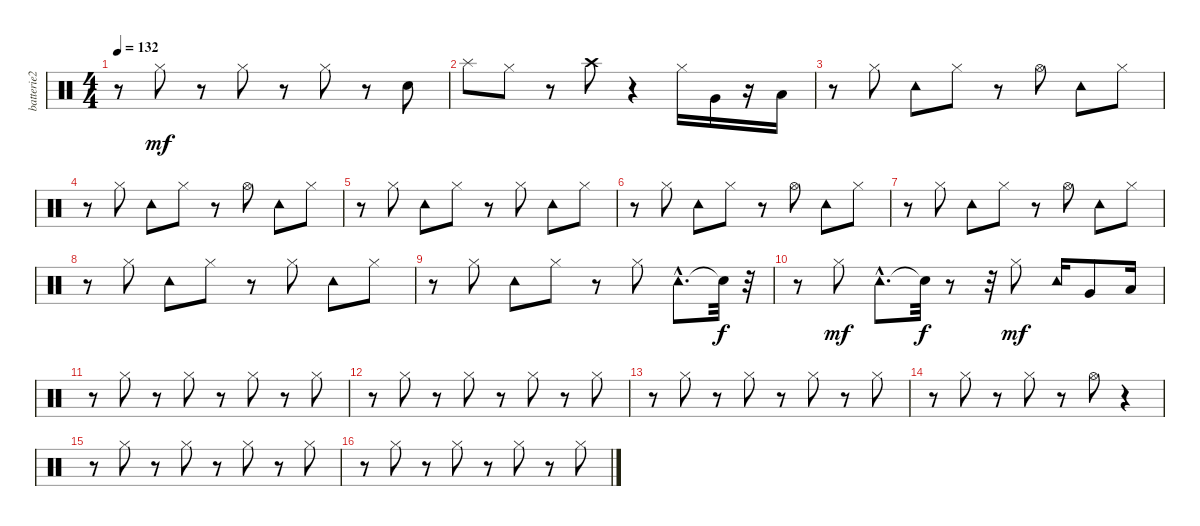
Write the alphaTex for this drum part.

\track ("batterie2" "batterie2") {instrument percussion}
\staff {score}
\articulation defaults
\ts (4 4)
\tempo 132
\clef neutral
\ks c
r.8{dy mf} "Hi-Hat (closed)".8 r.8 "Hi-Hat (closed)".8 r.8 "Hi-Hat (closed)".8 r.8 "Electric Snare (hit)".8 |
"Splash (hit)".8 "Hi-Hat (closed)".8 r.8 "Crash high (hit)".8 r.4 "Hi-Hat (closed)".16 "Very Low Tom (hit)".16 r.16 "Low Floor Tom (hit)".16 |
r.8 "Hi-Hat (closed)".8 "Tambourine (hit)".8 "Hi-Hat (closed)".8 r.8 "Hi-Hat (open)".8 "Tambourine (hit)".8 "Hi-Hat (closed)".8 |
r.8 "Hi-Hat (closed)".8 "Tambourine (hit)".8 "Hi-Hat (closed)".8 r.8 "Hi-Hat (open)".8 "Tambourine (hit)".8 "Hi-Hat (closed)".8 |
r.8 "Hi-Hat (closed)".8 "Tambourine (hit)".8 "Hi-Hat (closed)".8 r.8 "Hi-Hat (closed)".8 "Tambourine (hit)".8 "Hi-Hat (closed)".8 |
r.8 "Hi-Hat (closed)".8 "Tambourine (hit)".8 "Hi-Hat (closed)".8 r.8 "Hi-Hat (open)".8 "Tambourine (hit)".8 "Hi-Hat (closed)".8 |
r.8 "Hi-Hat (closed)".8 "Tambourine (hit)".8 "Hi-Hat (closed)".8 r.8 "Hi-Hat (open)".8 "Tambourine (hit)".8 "Hi-Hat (closed)".8 |
r.8 "Hi-Hat (closed)".8 "Tambourine (hit)".8 "Hi-Hat (closed)".8 r.8 "Hi-Hat (closed)".8 "Tambourine (hit)".8 "Hi-Hat (closed)".8 |
r.8 "Hi-Hat (closed)".8 "Tambourine (hit)".8 "Hi-Hat (closed)".8 r.8 "Hi-Hat (closed)".8 "Tambourine (hit)"{hac}.8{d} "Snare (hit)"{t}.32{dy f} r.32 |
r.8 "Hi-Hat (closed)".8{dy mf} "Tambourine (hit)"{hac}.8{d} "Snare (hit)"{t}.32{dy f} r.8 r.32 "Hi-Hat (closed)".8{dy mf} "Tambourine (hit)".16 "Very Low Tom (hit)".8 "Low Floor Tom (hit)".16 |
r.8 "Hi-Hat (closed)".8 r.8 "Hi-Hat (closed)".8 r.8 "Hi-Hat (closed)".8 r.8 "Hi-Hat (closed)".8 |
r.8 "Hi-Hat (closed)".8 r.8 "Hi-Hat (closed)".8 r.8 "Hi-Hat (closed)".8 r.8 "Hi-Hat (closed)".8 |
r.8 "Hi-Hat (closed)".8 r.8 "Hi-Hat (closed)".8 r.8 "Hi-Hat (closed)".8 r.8 "Hi-Hat (closed)".8 |
r.8 "Hi-Hat (closed)".8 r.8 "Hi-Hat (closed)".8 r.8 "Hi-Hat (open)".8 r.4 |
r.8 "Hi-Hat (closed)".8 r.8 "Hi-Hat (closed)".8 r.8 "Hi-Hat (closed)".8 r.8 "Hi-Hat (closed)".8 |
r.8 "Hi-Hat (closed)".8 r.8 "Hi-Hat (closed)".8 r.8 "Hi-Hat (closed)".8 r.8 "Hi-Hat (closed)".8
